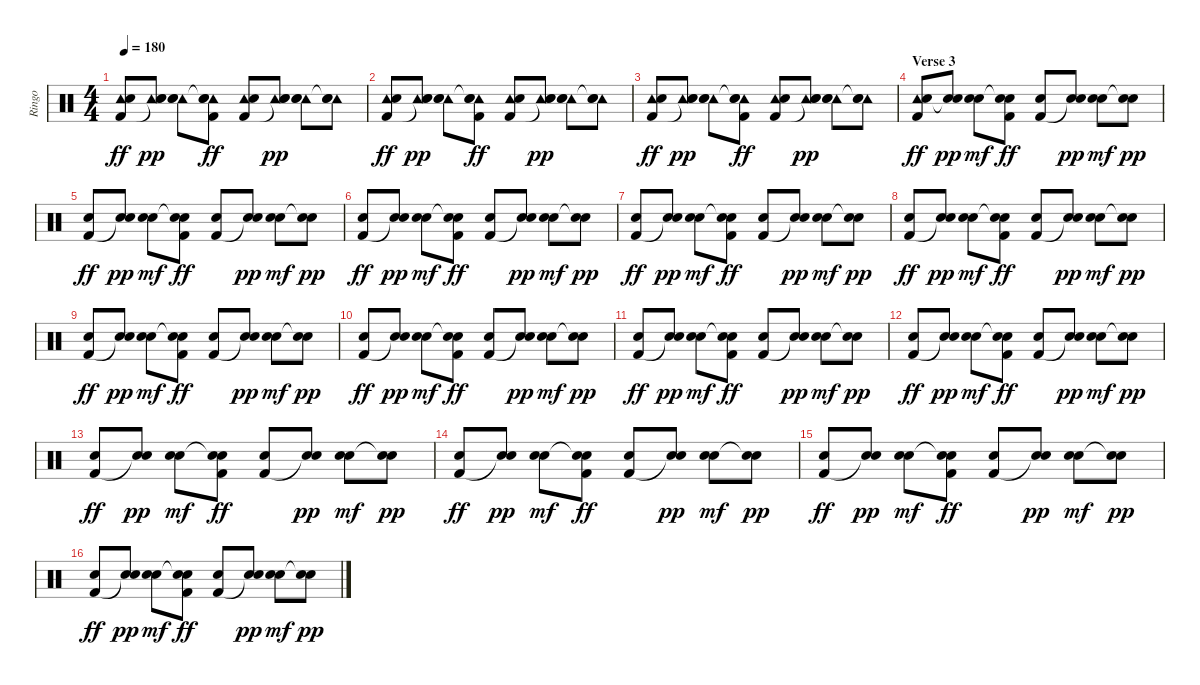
\track ("Ringo" "Ringo") {instrument percussion}
\staff {score}
\articulation defaults
\ts (4 4)
\tempo 180
\clef neutral
\ks c
("Tambourine (hit)" "Hand Clap (hit)" "Kick (hit) 2").8{dy ff} ("Tambourine (hit)" "Hand Clap (hit)" "Snare (hit)"{t}).8{dy pp} ("Tambourine (hit)" "Hand Clap (hit)" "Snare (hit) 2").8 ("Tambourine (hit)" "Hand Clap (hit)" "Snare (hit)"{t} "Kick (hit) 2").8{dy ff} ("Tambourine (hit)" "Hand Clap (hit)" "Kick (hit) 2").8 ("Tambourine (hit)" "Hand Clap (hit)" "Snare (hit)"{t}).8{dy pp} ("Tambourine (hit)" "Hand Clap (hit)" "Snare (hit) 2").8 ("Tambourine (hit)" "Hand Clap (hit)" "Snare (hit)"{t}).8 |
("Tambourine (hit)" "Hand Clap (hit)" "Kick (hit) 2").8{dy ff} ("Tambourine (hit)" "Hand Clap (hit)" "Snare (hit)"{t}).8{dy pp} ("Tambourine (hit)" "Hand Clap (hit)" "Snare (hit) 2").8 ("Tambourine (hit)" "Hand Clap (hit)" "Snare (hit)"{t} "Kick (hit) 2").8{dy ff} ("Tambourine (hit)" "Hand Clap (hit)" "Kick (hit) 2").8 ("Tambourine (hit)" "Hand Clap (hit)" "Snare (hit)"{t}).8{dy pp} ("Tambourine (hit)" "Hand Clap (hit)" "Snare (hit) 2").8 ("Tambourine (hit)" "Hand Clap (hit)" "Snare (hit)"{t}).8 |
("Tambourine (hit)" "Hand Clap (hit)" "Kick (hit) 2").8{dy ff} ("Tambourine (hit)" "Hand Clap (hit)" "Snare (hit)"{t}).8{dy pp} ("Tambourine (hit)" "Hand Clap (hit)" "Snare (hit) 2").8 ("Tambourine (hit)" "Hand Clap (hit)" "Snare (hit)"{t} "Kick (hit) 2").8{dy ff} ("Tambourine (hit)" "Hand Clap (hit)" "Kick (hit) 2").8 ("Tambourine (hit)" "Hand Clap (hit)" "Snare (hit)"{t}).8{dy pp} ("Tambourine (hit)" "Hand Clap (hit)" "Snare (hit) 2").8 ("Tambourine (hit)" "Hand Clap (hit)" "Snare (hit)"{t}).8 |
\section ("" "Verse 3")
("Tambourine (hit)" "Hand Clap (hit)" "Kick (hit) 2").8{dy ff} ("Hand Clap (hit)" "Snare (hit)"{t}).8{dy pp} ("Hand Clap (hit)" "Snare (hit) 2").8{dy mf} ("Hand Clap (hit)" "Snare (hit)"{t} "Kick (hit) 2").8{dy ff} ("Hand Clap (hit)" "Kick (hit) 2").8 ("Hand Clap (hit)" "Snare (hit)"{t}).8{dy pp} ("Hand Clap (hit)" "Snare (hit) 2").8{dy mf} ("Hand Clap (hit)" "Snare (hit)"{t}).8{dy pp} |
("Hand Clap (hit)" "Kick (hit) 2").8{dy ff} ("Hand Clap (hit)" "Snare (hit)"{t}).8{dy pp} ("Hand Clap (hit)" "Snare (hit) 2").8{dy mf} ("Hand Clap (hit)" "Snare (hit)"{t} "Kick (hit) 2").8{dy ff} ("Hand Clap (hit)" "Kick (hit) 2").8 ("Hand Clap (hit)" "Snare (hit)"{t}).8{dy pp} ("Hand Clap (hit)" "Snare (hit) 2").8{dy mf} ("Hand Clap (hit)" "Snare (hit)"{t}).8{dy pp} |
("Hand Clap (hit)" "Kick (hit) 2").8{dy ff} ("Hand Clap (hit)" "Snare (hit)"{t}).8{dy pp} ("Hand Clap (hit)" "Snare (hit) 2").8{dy mf} ("Hand Clap (hit)" "Snare (hit)"{t} "Kick (hit) 2").8{dy ff} ("Hand Clap (hit)" "Kick (hit) 2").8 ("Hand Clap (hit)" "Snare (hit)"{t}).8{dy pp} ("Hand Clap (hit)" "Snare (hit) 2").8{dy mf} ("Hand Clap (hit)" "Snare (hit)"{t}).8{dy pp} |
("Hand Clap (hit)" "Kick (hit) 2").8{dy ff} ("Hand Clap (hit)" "Snare (hit)"{t}).8{dy pp} ("Hand Clap (hit)" "Snare (hit) 2").8{dy mf} ("Hand Clap (hit)" "Snare (hit)"{t} "Kick (hit) 2").8{dy ff} ("Hand Clap (hit)" "Kick (hit) 2").8 ("Hand Clap (hit)" "Snare (hit)"{t}).8{dy pp} ("Hand Clap (hit)" "Snare (hit) 2").8{dy mf} ("Hand Clap (hit)" "Snare (hit)"{t}).8{dy pp} |
("Hand Clap (hit)" "Kick (hit) 2").8{dy ff} ("Hand Clap (hit)" "Snare (hit)"{t}).8{dy pp} ("Hand Clap (hit)" "Snare (hit) 2").8{dy mf} ("Hand Clap (hit)" "Snare (hit)"{t} "Kick (hit) 2").8{dy ff} ("Hand Clap (hit)" "Kick (hit) 2").8 ("Hand Clap (hit)" "Snare (hit)"{t}).8{dy pp} ("Hand Clap (hit)" "Snare (hit) 2").8{dy mf} ("Hand Clap (hit)" "Snare (hit)"{t}).8{dy pp} |
("Hand Clap (hit)" "Kick (hit) 2").8{dy ff} ("Hand Clap (hit)" "Snare (hit)"{t}).8{dy pp} ("Hand Clap (hit)" "Snare (hit) 2").8{dy mf} ("Hand Clap (hit)" "Snare (hit)"{t} "Kick (hit) 2").8{dy ff} ("Hand Clap (hit)" "Kick (hit) 2").8 ("Hand Clap (hit)" "Snare (hit)"{t}).8{dy pp} ("Hand Clap (hit)" "Snare (hit) 2").8{dy mf} ("Hand Clap (hit)" "Snare (hit)"{t}).8{dy pp} |
("Hand Clap (hit)" "Kick (hit) 2").8{dy ff} ("Hand Clap (hit)" "Snare (hit)"{t}).8{dy pp} ("Hand Clap (hit)" "Snare (hit) 2").8{dy mf} ("Hand Clap (hit)" "Snare (hit)"{t} "Kick (hit) 2").8{dy ff} ("Hand Clap (hit)" "Kick (hit) 2").8 ("Hand Clap (hit)" "Snare (hit)"{t}).8{dy pp} ("Hand Clap (hit)" "Snare (hit) 2").8{dy mf} ("Hand Clap (hit)" "Snare (hit)"{t}).8{dy pp} |
("Hand Clap (hit)" "Kick (hit) 2").8{dy ff} ("Hand Clap (hit)" "Snare (hit)"{t}).8{dy pp} ("Hand Clap (hit)" "Snare (hit) 2").8{dy mf} ("Hand Clap (hit)" "Snare (hit)"{t} "Kick (hit) 2").8{dy ff} ("Hand Clap (hit)" "Kick (hit) 2").8 ("Hand Clap (hit)" "Snare (hit)"{t}).8{dy pp} ("Hand Clap (hit)" "Snare (hit) 2").8{dy mf} ("Hand Clap (hit)" "Snare (hit)"{t}).8{dy pp} |
("Hand Clap (hit)" "Kick (hit) 2").8{dy ff} ("Hand Clap (hit)" "Snare (hit)"{t}).8{dy pp} ("Hand Clap (hit)" "Snare (hit) 2").8{dy mf} ("Hand Clap (hit)" "Snare (hit)"{t} "Kick (hit) 2").8{dy ff} ("Hand Clap (hit)" "Kick (hit) 2").8 ("Hand Clap (hit)" "Snare (hit)"{t}).8{dy pp} ("Hand Clap (hit)" "Snare (hit) 2").8{dy mf} ("Hand Clap (hit)" "Snare (hit)"{t}).8{dy pp} |
("Hand Clap (hit)" "Kick (hit) 2").8{dy ff} ("Hand Clap (hit)" "Snare (hit)"{t}).8{dy pp} ("Hand Clap (hit)" "Snare (hit) 2").8{dy mf} ("Hand Clap (hit)" "Snare (hit)"{t} "Kick (hit) 2").8{dy ff} ("Hand Clap (hit)" "Kick (hit) 2").8 ("Hand Clap (hit)" "Snare (hit)"{t}).8{dy pp} ("Hand Clap (hit)" "Snare (hit) 2").8{dy mf} ("Hand Clap (hit)" "Snare (hit)"{t}).8{dy pp} |
("Hand Clap (hit)" "Kick (hit) 2").8{dy ff} ("Hand Clap (hit)" "Snare (hit)"{t}).8{dy pp} ("Hand Clap (hit)" "Snare (hit) 2").8{dy mf} ("Hand Clap (hit)" "Snare (hit)"{t} "Kick (hit) 2").8{dy ff} ("Hand Clap (hit)" "Kick (hit) 2").8 ("Hand Clap (hit)" "Snare (hit)"{t}).8{dy pp} ("Hand Clap (hit)" "Snare (hit) 2").8{dy mf} ("Hand Clap (hit)" "Snare (hit)"{t}).8{dy pp} |
("Hand Clap (hit)" "Kick (hit) 2").8{dy ff} ("Hand Clap (hit)" "Snare (hit)"{t}).8{dy pp} ("Hand Clap (hit)" "Snare (hit) 2").8{dy mf} ("Hand Clap (hit)" "Snare (hit)"{t} "Kick (hit) 2").8{dy ff} ("Hand Clap (hit)" "Kick (hit) 2").8 ("Hand Clap (hit)" "Snare (hit)"{t}).8{dy pp} ("Hand Clap (hit)" "Snare (hit) 2").8{dy mf} ("Hand Clap (hit)" "Snare (hit)"{t}).8{dy pp} |
("Hand Clap (hit)" "Kick (hit) 2").8{dy ff} ("Hand Clap (hit)" "Snare (hit)"{t}).8{dy pp} ("Hand Clap (hit)" "Snare (hit) 2").8{dy mf} ("Hand Clap (hit)" "Snare (hit)"{t} "Kick (hit) 2").8{dy ff} ("Hand Clap (hit)" "Kick (hit) 2").8 ("Hand Clap (hit)" "Snare (hit)"{t}).8{dy pp} ("Hand Clap (hit)" "Snare (hit) 2").8{dy mf} ("Hand Clap (hit)" "Snare (hit)"{t}).8{dy pp}
